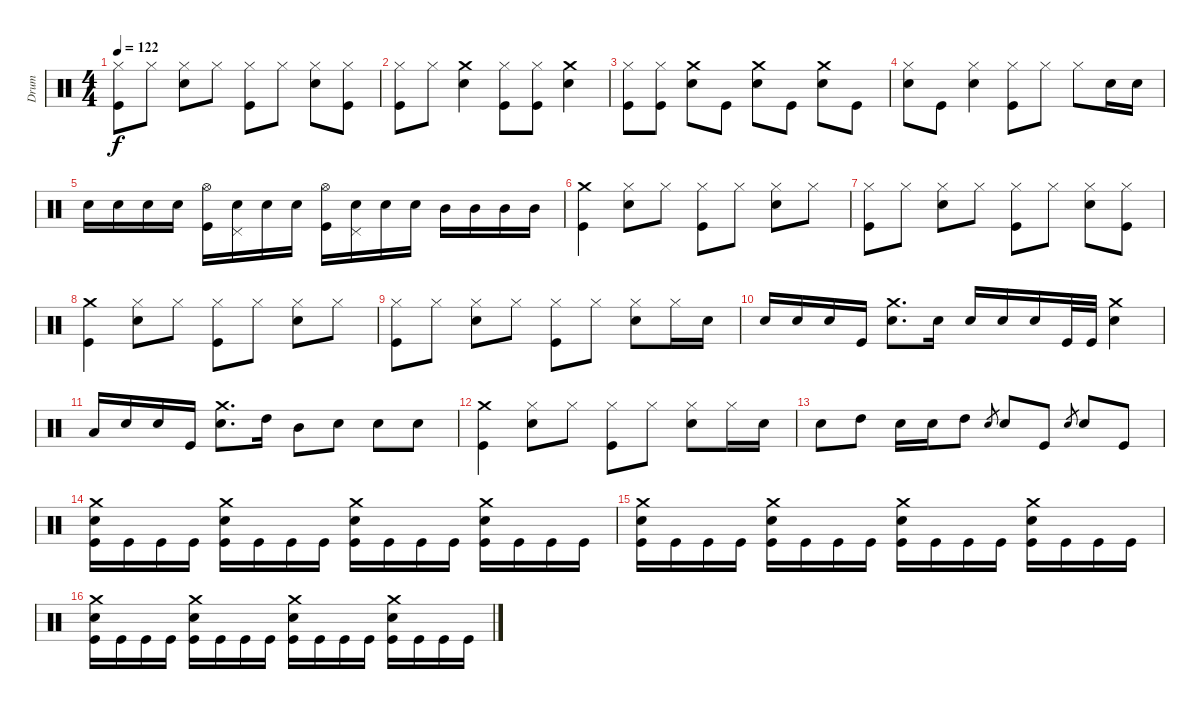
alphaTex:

\track ("Drum" "Drum") {instrument percussion}
\staff {score}
\articulation defaults
\ts (4 4)
\tempo 122
\clef neutral
\ks c
("Kick (hit)" "Hi-Hat (closed)").8{dy f} "Hi-Hat (closed)".8 ("Electric Snare (hit)" "Hi-Hat (closed)").8 "Hi-Hat (closed)".8 ("Kick (hit)" "Hi-Hat (closed)").8 "Hi-Hat (closed)".8 ("Electric Snare (hit)" "Hi-Hat (closed)").8 ("Kick (hit)" "Hi-Hat (closed)").8 |
("Kick (hit)" "Hi-Hat (closed)").8 "Hi-Hat (closed)".8 ("Electric Snare (hit)" "Crash medium (hit)").4 ("Kick (hit)" "Hi-Hat (closed)").8 ("Kick (hit)" "Hi-Hat (closed)").8 ("Electric Snare (hit)" "Crash medium (hit)").4 |
("Kick (hit)" "Hi-Hat (closed)").8 ("Kick (hit)" "Hi-Hat (closed)").8 ("Electric Snare (hit)" "Crash medium (hit)").8 "Kick (hit)".8 ("Electric Snare (hit)" "Crash medium (hit)").8 "Kick (hit)".8 ("Electric Snare (hit)" "Crash medium (hit)").8 "Kick (hit)".8 |
("Electric Snare (hit)" "Hi-Hat (closed)").8 "Kick (hit)".8 ("Electric Snare (hit)" "Hi-Hat (closed)").4 ("Kick (hit)" "Hi-Hat (closed)").8 "Hi-Hat (closed)".8 "Hi-Hat (closed)".8 "Electric Snare (hit)".16 "Electric Snare (hit)".16 |
"Electric Snare (hit)".16 "Electric Snare (hit)".16 "Electric Snare (hit)".16 "Electric Snare (hit)".16 ("Kick (hit)" "Hi-Hat (open)").16 ("Electric Snare (hit)" "Pedal Hi-Hat (hit)").16 "Electric Snare (hit)".16 "Electric Snare (hit)".16 ("Kick (hit)" "Hi-Hat (open)").16 ("Electric Snare (hit)" "Pedal Hi-Hat (hit)").16 "Electric Snare (hit)".16 "Electric Snare (hit)".16 "Mid Tom (hit)".16 "Mid Tom (hit)".16 "Mid Tom (hit)".16 "Mid Tom (hit)".16 |
("Kick (hit)" "Crash medium (hit)").4 ("Electric Snare (hit)" "Hi-Hat (closed)").8 "Hi-Hat (closed)".8 ("Kick (hit)" "Hi-Hat (closed)").8 "Hi-Hat (closed)".8 ("Electric Snare (hit)" "Hi-Hat (closed)").8 "Hi-Hat (closed)".8 |
("Kick (hit)" "Hi-Hat (closed)").8 "Hi-Hat (closed)".8 ("Electric Snare (hit)" "Hi-Hat (closed)").8 "Hi-Hat (closed)".8 ("Kick (hit)" "Hi-Hat (closed)").8 "Hi-Hat (closed)".8 ("Electric Snare (hit)" "Hi-Hat (closed)").8 ("Kick (hit)" "Hi-Hat (closed)").8 |
("Kick (hit)" "Crash medium (hit)").4 ("Electric Snare (hit)" "Hi-Hat (closed)").8 "Hi-Hat (closed)".8 ("Kick (hit)" "Hi-Hat (closed)").8 "Hi-Hat (closed)".8 ("Electric Snare (hit)" "Hi-Hat (closed)").8 "Hi-Hat (closed)".8 |
("Kick (hit)" "Hi-Hat (closed)").8 "Hi-Hat (closed)".8 ("Electric Snare (hit)" "Hi-Hat (closed)").8 "Hi-Hat (closed)".8 ("Kick (hit)" "Hi-Hat (closed)").8 "Hi-Hat (closed)".8 ("Electric Snare (hit)" "Hi-Hat (closed)").8 "Hi-Hat (closed)".16 "Electric Snare (hit)".16 |
"Electric Snare (hit)".16 "Electric Snare (hit)".16 "Electric Snare (hit)".16 "Kick (hit)".16 ("Electric Snare (hit)" "Crash medium (hit)").8{d} "Electric Snare (hit)".16 "Electric Snare (hit)".16 "Electric Snare (hit)".16 "Electric Snare (hit)".16 "Kick (hit)".32 "Kick (hit)".32 ("Electric Snare (hit)" "Crash medium (hit)").4 |
"Low Floor Tom (hit)".16 "Electric Snare (hit)".16 "Electric Snare (hit)".16 "Kick (hit)".16 ("Electric Snare (hit)" "Crash medium (hit)").8{d} "High Tom (hit)".16 "Mid Tom (hit)".8 "Electric Snare (hit)".8 "Electric Snare (hit)".8 "Electric Snare (hit)".8 |
("Kick (hit)" "Crash medium (hit)").4 ("Electric Snare (hit)" "Hi-Hat (closed)").8 "Hi-Hat (closed)".8 ("Kick (hit)" "Hi-Hat (closed)").8 "Hi-Hat (closed)".8 ("Electric Snare (hit)" "Hi-Hat (closed)").8 "Hi-Hat (closed)".16 "Electric Snare (hit)".16 |
"Electric Snare (hit)".8 "High Tom (hit)".8 "Electric Snare (hit)".16 "Electric Snare (hit)".16 "High Tom (hit)".8 "Electric Snare (hit)".8{gr} "Electric Snare (hit)".8 "Kick (hit)".8 "Electric Snare (hit)".8{gr} "Electric Snare (hit)".8 "Kick (hit)".8 |
("Kick (hit)" "Electric Snare (hit)" "Crash medium (hit)").16 "Kick (hit)".16 "Kick (hit)".16 "Kick (hit)".16 ("Kick (hit)" "Electric Snare (hit)" "Crash medium (hit)").16 "Kick (hit)".16 "Kick (hit)".16 "Kick (hit)".16 ("Kick (hit)" "Electric Snare (hit)" "Crash medium (hit)").16 "Kick (hit)".16 "Kick (hit)".16 "Kick (hit)".16 ("Kick (hit)" "Electric Snare (hit)" "Crash medium (hit)").16 "Kick (hit)".16 "Kick (hit)".16 "Kick (hit)".16 |
("Kick (hit)" "Electric Snare (hit)" "Crash medium (hit)").16 "Kick (hit)".16 "Kick (hit)".16 "Kick (hit)".16 ("Kick (hit)" "Electric Snare (hit)" "Crash medium (hit)").16 "Kick (hit)".16 "Kick (hit)".16 "Kick (hit)".16 ("Kick (hit)" "Electric Snare (hit)" "Crash medium (hit)").16 "Kick (hit)".16 "Kick (hit)".16 "Kick (hit)".16 ("Kick (hit)" "Electric Snare (hit)" "Crash medium (hit)").16 "Kick (hit)".16 "Kick (hit)".16 "Kick (hit)".16 |
("Kick (hit)" "Electric Snare (hit)" "Crash medium (hit)").16 "Kick (hit)".16 "Kick (hit)".16 "Kick (hit)".16 ("Kick (hit)" "Electric Snare (hit)" "Crash medium (hit)").16 "Kick (hit)".16 "Kick (hit)".16 "Kick (hit)".16 ("Kick (hit)" "Electric Snare (hit)" "Crash medium (hit)").16 "Kick (hit)".16 "Kick (hit)".16 "Kick (hit)".16 ("Kick (hit)" "Electric Snare (hit)" "Crash medium (hit)").16 "Kick (hit)".16 "Kick (hit)".16 "Kick (hit)".16
